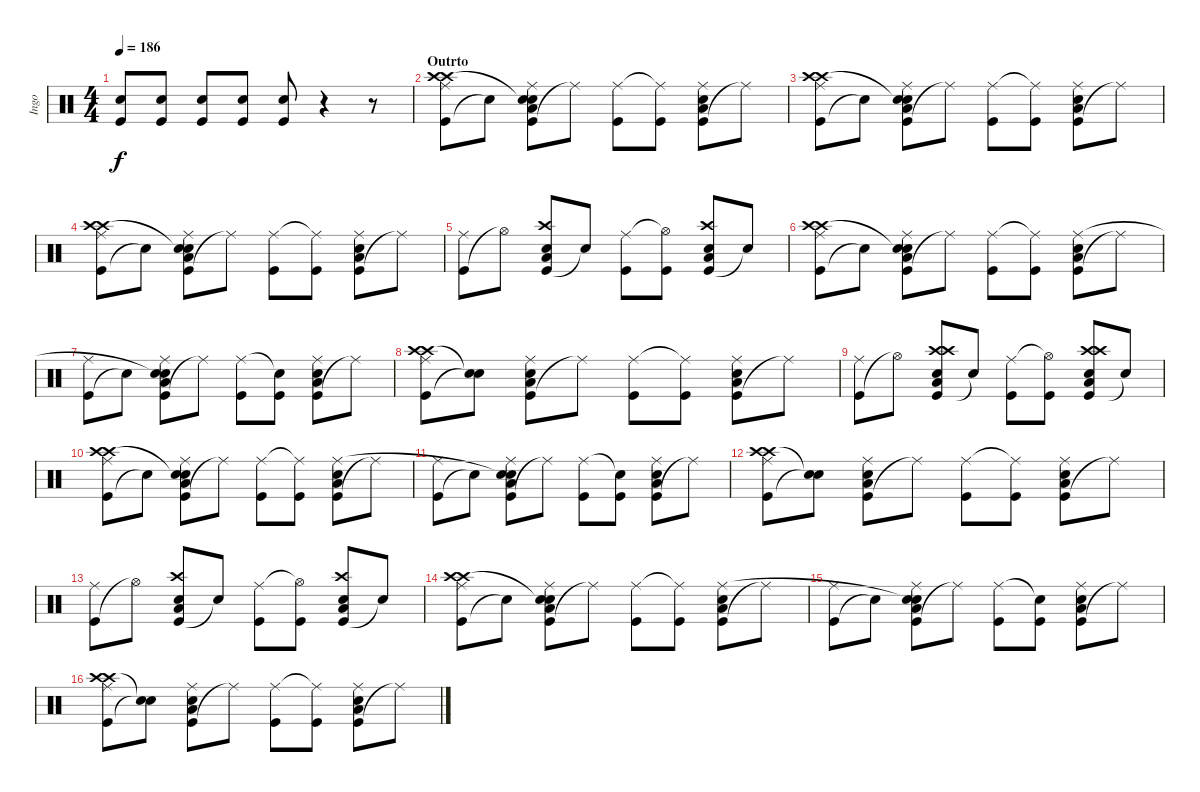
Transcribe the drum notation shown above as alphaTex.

\track ("Ingo" "Ingo") {instrument percussion}
\staff {score}
\articulation defaults
\ts (4 4)
\tempo 186
\clef neutral
\ks c
("Kick (hit)" "Snare (hit) 2").8{dy f} ("Kick (hit)" "Snare (hit) 2").8 ("Kick (hit)" "Snare (hit) 2").8 ("Kick (hit)" "Snare (hit) 2").8 ("Kick (hit)" "Snare (hit) 2").8 r.4 r.8 |
\section ("" "Outrto")
("Kick (hit)" "Ride (middle)" "Crash high (hit)" "Crash high (hit)").8 "Snare (hit)"{t}.8 ("Kick (hit)" "Low Tom (hit)" "Snare (hit) 2" "Snare (hit)"{t} "Ride (middle)").8 "Ride (middle)"{t}.8 ("Kick (hit)" "Ride (middle)").8 ("Kick (hit)" "Ride (middle)"{t}).8 ("Kick (hit)" "Low Tom (hit)" "Snare (hit) 2" "Ride (middle)").8 "Ride (middle)"{t}.8 |
("Kick (hit)" "Ride (middle)" "Crash high (hit)" "Crash high (hit)").8 "Snare (hit)"{t}.8 ("Kick (hit)" "Low Tom (hit)" "Snare (hit) 2" "Snare (hit)"{t} "Ride (middle)").8 "Ride (middle)"{t}.8 ("Kick (hit)" "Ride (middle)").8 ("Kick (hit)" "Ride (middle)"{t}).8 ("Kick (hit)" "Low Tom (hit)" "Snare (hit) 2" "Ride (middle)").8 "Ride (middle)"{t}.8 |
("Kick (hit)" "Ride (middle)" "Crash high (hit)" "Crash high (hit)").8 "Snare (hit)"{t}.8 ("Kick (hit)" "Low Tom (hit)" "Snare (hit) 2" "Snare (hit)"{t} "Ride (middle)").8 "Ride (middle)"{t}.8 ("Kick (hit)" "Ride (middle)").8 ("Kick (hit)" "Ride (middle)"{t}).8 ("Kick (hit)" "Low Tom (hit)" "Snare (hit) 2" "Ride (middle)").8 "Ride (middle)"{t}.8 |
("Kick (hit)" "Ride (middle)").8 "Hi-Hat (open)"{t}.8 ("Kick (hit)" "Low Tom (hit)" "Snare (hit) 2" "Crash high (hit)").8 "Snare (hit)"{t}.8 ("Kick (hit)" "Ride (middle)").8 ("Kick (hit)" "Hi-Hat (open)"{t}).8 ("Kick (hit)" "Low Tom (hit)" "Snare (hit) 2" "Crash high (hit)").8 "Snare (hit)"{t}.8 |
("Kick (hit)" "Ride (middle)" "Crash high (hit)" "Crash high (hit)").8 "Snare (hit)"{t}.8 ("Kick (hit)" "Low Tom (hit)" "Snare (hit) 2" "Snare (hit)"{t} "Ride (middle)").8 "Ride (middle)"{t}.8 ("Kick (hit)" "Ride (middle)").8 ("Kick (hit)" "Ride (middle)"{t}).8 ("Kick (hit)" "Low Tom (hit)" "Snare (hit) 2" "Ride (middle)").8 "Ride (middle)"{t}.8 |
("Kick (hit)" "Ride (middle)").8 "Snare (hit)"{t}.8 ("Kick (hit)" "Low Tom (hit)" "Snare (hit) 2" "Snare (hit)"{t} "Ride (middle)").8 "Ride (middle)"{t}.8 ("Kick (hit)" "Ride (middle)").8 ("Kick (hit)" "Snare (hit)"{t}).8 ("Kick (hit)" "Low Tom (hit)" "Snare (hit) 2" "Ride (middle)").8 "Ride (middle)"{t}.8 |
("Kick (hit)" "Crash high (hit)" "Ride (middle)" "Crash high (hit)").8 ("Snare (hit)"{t} "Snare (hit)"{t}).8 ("Kick (hit)" "Low Tom (hit)" "Snare (hit) 2" "Ride (middle)").8 "Ride (middle)"{t}.8 ("Kick (hit)" "Ride (middle)").8 ("Kick (hit)" "Ride (middle)"{t}).8 ("Kick (hit)" "Low Tom (hit)" "Snare (hit) 2" "Ride (middle)").8 "Ride (middle)"{t}.8 |
("Kick (hit)" "Ride (middle)").8 "Hi-Hat (open)"{t}.8 ("Kick (hit)" "Low Tom (hit)" "Snare (hit) 2" "Crash high (hit)" "Crash high (hit)").8 "Snare (hit)"{t}.8 ("Kick (hit)" "Ride (middle)").8 ("Kick (hit)" "Hi-Hat (open)"{t}).8 ("Kick (hit)" "Low Tom (hit)" "Snare (hit) 2" "Crash high (hit)" "Crash high (hit)").8 "Snare (hit)"{t}.8 |
("Kick (hit)" "Ride (middle)" "Crash high (hit)" "Crash high (hit)").8 "Snare (hit)"{t}.8 ("Kick (hit)" "Low Tom (hit)" "Snare (hit) 2" "Snare (hit)"{t} "Ride (middle)").8 "Ride (middle)"{t}.8 ("Kick (hit)" "Ride (middle)").8 ("Kick (hit)" "Ride (middle)"{t}).8 ("Kick (hit)" "Low Tom (hit)" "Snare (hit) 2" "Ride (middle)").8 "Ride (middle)"{t}.8 |
("Kick (hit)" "Ride (middle)").8 "Snare (hit)"{t}.8 ("Kick (hit)" "Low Tom (hit)" "Snare (hit) 2" "Snare (hit)"{t} "Ride (middle)").8 "Ride (middle)"{t}.8 ("Kick (hit)" "Ride (middle)").8 ("Kick (hit)" "Snare (hit)"{t}).8 ("Kick (hit)" "Low Tom (hit)" "Snare (hit) 2" "Ride (middle)").8 "Ride (middle)"{t}.8 |
("Kick (hit)" "Crash high (hit)" "Ride (middle)" "Crash high (hit)").8 ("Snare (hit)"{t} "Snare (hit)"{t}).8 ("Kick (hit)" "Low Tom (hit)" "Snare (hit) 2" "Ride (middle)").8 "Ride (middle)"{t}.8 ("Kick (hit)" "Ride (middle)").8 ("Kick (hit)" "Ride (middle)"{t}).8 ("Kick (hit)" "Low Tom (hit)" "Snare (hit) 2" "Ride (middle)").8 "Ride (middle)"{t}.8 |
("Kick (hit)" "Ride (middle)").8 "Hi-Hat (open)"{t}.8 ("Kick (hit)" "Low Tom (hit)" "Snare (hit) 2" "Crash high (hit)").8 "Snare (hit)"{t}.8 ("Kick (hit)" "Ride (middle)").8 ("Kick (hit)" "Hi-Hat (open)"{t}).8 ("Kick (hit)" "Low Tom (hit)" "Snare (hit) 2" "Crash high (hit)").8 "Snare (hit)"{t}.8 |
("Kick (hit)" "Ride (middle)" "Crash high (hit)" "Crash high (hit)").8 "Snare (hit)"{t}.8 ("Kick (hit)" "Low Tom (hit)" "Snare (hit) 2" "Snare (hit)"{t} "Ride (middle)").8 "Ride (middle)"{t}.8 ("Kick (hit)" "Ride (middle)").8 ("Kick (hit)" "Ride (middle)"{t}).8 ("Kick (hit)" "Low Tom (hit)" "Snare (hit) 2" "Ride (middle)").8 "Ride (middle)"{t}.8 |
("Kick (hit)" "Ride (middle)").8 "Snare (hit)"{t}.8 ("Kick (hit)" "Low Tom (hit)" "Snare (hit) 2" "Snare (hit)"{t} "Ride (middle)").8 "Ride (middle)"{t}.8 ("Kick (hit)" "Ride (middle)").8 ("Kick (hit)" "Snare (hit)"{t}).8 ("Kick (hit)" "Low Tom (hit)" "Snare (hit) 2" "Ride (middle)").8 "Ride (middle)"{t}.8 |
("Kick (hit)" "Crash high (hit)" "Ride (middle)" "Crash high (hit)").8 ("Snare (hit)"{t} "Snare (hit)"{t}).8 ("Kick (hit)" "Low Tom (hit)" "Snare (hit) 2" "Ride (middle)").8 "Ride (middle)"{t}.8 ("Kick (hit)" "Ride (middle)").8 ("Kick (hit)" "Ride (middle)"{t}).8 ("Kick (hit)" "Low Tom (hit)" "Snare (hit) 2" "Ride (middle)").8 "Ride (middle)"{t}.8
